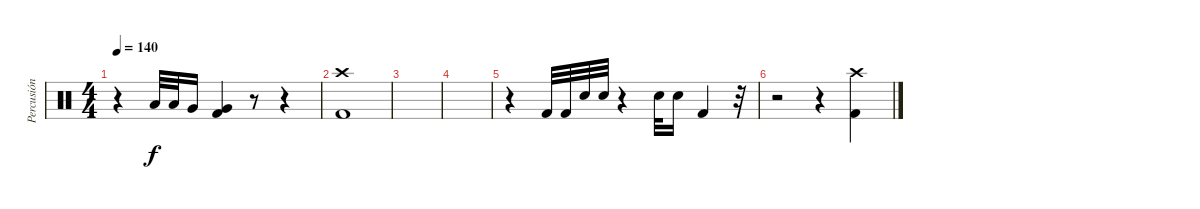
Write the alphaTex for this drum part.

\track ("Percusión" "Percusión") {instrument percussion}
\staff {score}
\articulation defaults
\ts (4 4)
\tempo 140
\clef neutral
\ks c
r.4{dy f} "Low Tom (hit)".32 "Low Tom (hit)".32 "Very Low Tom (hit)".16 ("Very Low Tom (hit)" "Kick (hit) 2").4 r.8 r.4 |
("Crash high (hit)" "Kick (hit) 2").1 |
|
|
r.4 "Kick (hit) 2".32 "Kick (hit) 2".32 "Snare (hit) 2".32 "Snare (hit) 2".32 r.4 "Snare (hit) 2".32 "Snare (hit) 2".16 "Kick (hit) 2".4 r.32 |
r.2 r.4 ("Crash high (hit)" "Kick (hit) 2").4
